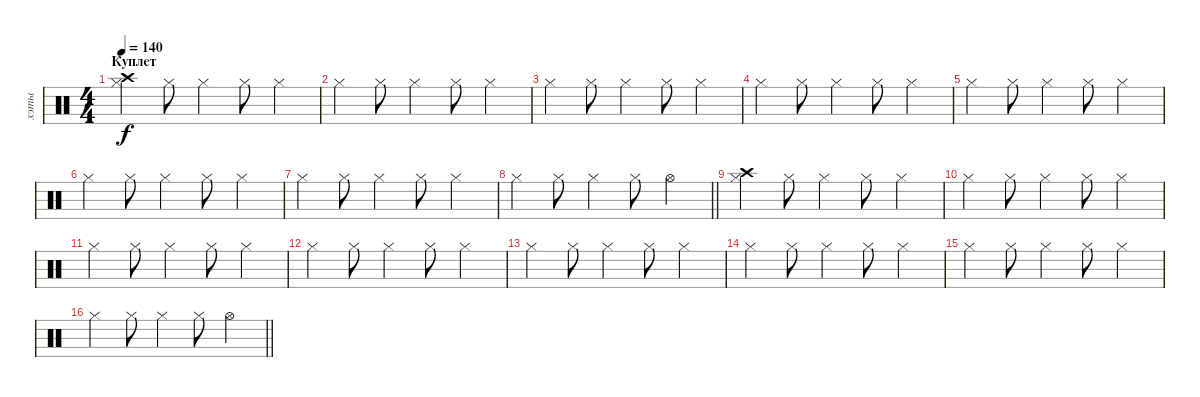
\track ("хэты" "хэты") {instrument percussion}
\staff {score}
\articulation defaults
\ts (4 4)
\section ("" "Куплет")
\tempo 140
\clef neutral
\ks c
("Hi-Hat (closed)" "Crash high (hit)").4{dy f} "Hi-Hat (closed)".8 "Hi-Hat (closed)".4 "Hi-Hat (closed)".8 "Hi-Hat (closed)".4 |
"Hi-Hat (closed)".4 "Hi-Hat (closed)".8 "Hi-Hat (closed)".4 "Hi-Hat (closed)".8 "Hi-Hat (closed)".4 |
"Hi-Hat (closed)".4 "Hi-Hat (closed)".8 "Hi-Hat (closed)".4 "Hi-Hat (closed)".8 "Hi-Hat (closed)".4 |
"Hi-Hat (closed)".4 "Hi-Hat (closed)".8 "Hi-Hat (closed)".4 "Hi-Hat (closed)".8 "Hi-Hat (closed)".4 |
"Hi-Hat (closed)".4 "Hi-Hat (closed)".8 "Hi-Hat (closed)".4 "Hi-Hat (closed)".8 "Hi-Hat (closed)".4 |
"Hi-Hat (closed)".4 "Hi-Hat (closed)".8 "Hi-Hat (closed)".4 "Hi-Hat (closed)".8 "Hi-Hat (closed)".4 |
"Hi-Hat (closed)".4 "Hi-Hat (closed)".8 "Hi-Hat (closed)".4 "Hi-Hat (closed)".8 "Hi-Hat (closed)".4 |
\barLineRight lightlight "Hi-Hat (closed)".4 "Hi-Hat (closed)".8 "Hi-Hat (closed)".4 "Hi-Hat (closed)".8 "Hi-Hat (open)".4
|
("Hi-Hat (closed)" "Crash high (hit)").4 "Hi-Hat (closed)".8 "Hi-Hat (closed)".4 "Hi-Hat (closed)".8 "Hi-Hat (closed)".4 |
"Hi-Hat (closed)".4 "Hi-Hat (closed)".8 "Hi-Hat (closed)".4 "Hi-Hat (closed)".8 "Hi-Hat (closed)".4 |
"Hi-Hat (closed)".4 "Hi-Hat (closed)".8 "Hi-Hat (closed)".4 "Hi-Hat (closed)".8 "Hi-Hat (closed)".4 |
"Hi-Hat (closed)".4 "Hi-Hat (closed)".8 "Hi-Hat (closed)".4 "Hi-Hat (closed)".8 "Hi-Hat (closed)".4 |
"Hi-Hat (closed)".4 "Hi-Hat (closed)".8 "Hi-Hat (closed)".4 "Hi-Hat (closed)".8 "Hi-Hat (closed)".4 |
"Hi-Hat (closed)".4 "Hi-Hat (closed)".8 "Hi-Hat (closed)".4 "Hi-Hat (closed)".8 "Hi-Hat (closed)".4 |
"Hi-Hat (closed)".4 "Hi-Hat (closed)".8 "Hi-Hat (closed)".4 "Hi-Hat (closed)".8 "Hi-Hat (closed)".4 |
\barLineRight lightlight "Hi-Hat (closed)".4 "Hi-Hat (closed)".8 "Hi-Hat (closed)".4 "Hi-Hat (closed)".8 "Hi-Hat (open)".4
